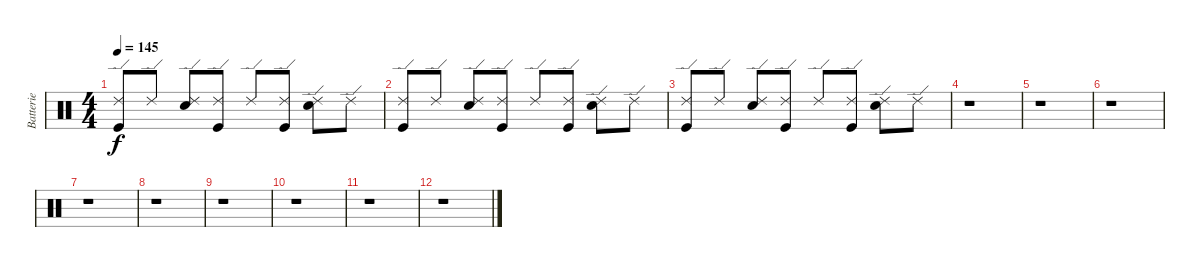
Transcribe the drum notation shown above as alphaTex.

\track ("Batterie" "Batterie") {instrument percussion}
\staff {score}
\articulation defaults
\ts (4 4)
\tempo 145
\clef neutral
\ks c
("Ride (edge) 2" "Kick (hit)").8{dy f} "Ride (edge) 2".8 ("Ride (edge) 2" "Snare (hit) 2").8 ("Ride (edge) 2" "Kick (hit)").8 "Ride (edge) 2".8 ("Ride (edge) 2" "Kick (hit)").8 ("Ride (edge) 2" "Snare (hit) 2").8 "Ride (edge) 2".8 |
("Ride (edge) 2" "Kick (hit)").8 "Ride (edge) 2".8 ("Ride (edge) 2" "Snare (hit) 2").8 ("Ride (edge) 2" "Kick (hit)").8 "Ride (edge) 2".8 ("Ride (edge) 2" "Kick (hit)").8 ("Ride (edge) 2" "Snare (hit) 2").8 "Ride (edge) 2".8 |
("Ride (edge) 2" "Kick (hit)").8 "Ride (edge) 2".8 ("Ride (edge) 2" "Snare (hit) 2").8 ("Ride (edge) 2" "Kick (hit)").8 "Ride (edge) 2".8 ("Ride (edge) 2" "Kick (hit)").8 ("Ride (edge) 2" "Snare (hit) 2").8 "Ride (edge) 2".8 |
r.1 |
r.1 |
r.1 |
r.1 |
r.1 |
r.1 |
r.1 |
r.1 |
r.1
